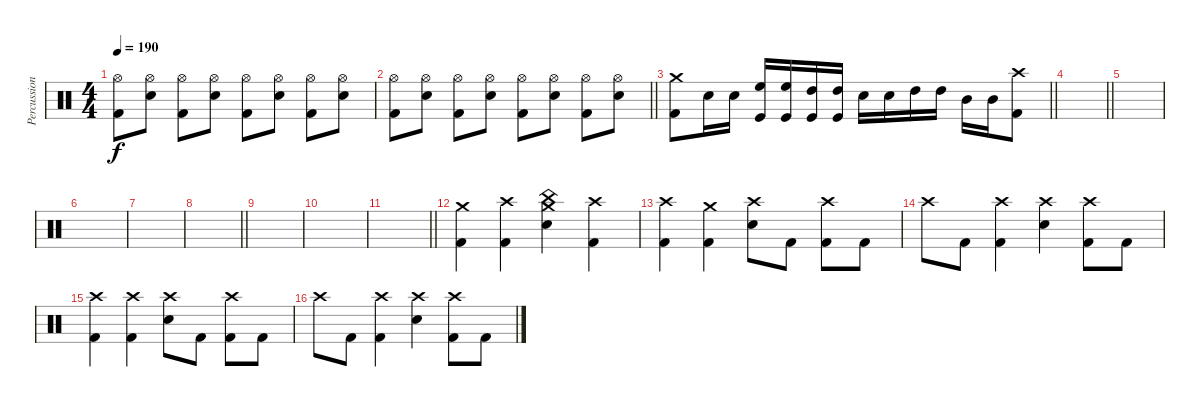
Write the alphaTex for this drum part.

\track ("Percussions" "Percussion") {instrument percussion}
\staff {score}
\articulation defaults
\ts (4 4)
\tempo 190
\clef neutral
\ks c
("Hi-Hat (open)" "Kick (hit) 2").8{dy f} ("Hi-Hat (open)" "Electric Snare (hit)").8 ("Hi-Hat (open)" "Kick (hit) 2").8 ("Hi-Hat (open)" "Electric Snare (hit)").8 ("Hi-Hat (open)" "Kick (hit) 2").8 ("Hi-Hat (open)" "Electric Snare (hit)").8 ("Hi-Hat (open)" "Kick (hit) 2").8 ("Hi-Hat (open)" "Electric Snare (hit)").8 |
\barLineRight lightlight
("Hi-Hat (open)" "Kick (hit) 2").8 ("Hi-Hat (open)" "Electric Snare (hit)").8 ("Hi-Hat (open)" "Kick (hit) 2").8 ("Hi-Hat (open)" "Electric Snare (hit)").8 ("Hi-Hat (open)" "Kick (hit) 2").8 ("Hi-Hat (open)" "Electric Snare (hit)").8 ("Hi-Hat (open)" "Kick (hit) 2").8 ("Hi-Hat (open)" "Electric Snare (hit)").8 |
\barLineRight lightlight
("Crash medium (hit)" "Kick (hit) 2").8 "Electric Snare (hit)".16 "Electric Snare (hit)".16 ("High Floor Tom (hit)" "Kick (hit)").16 ("High Floor Tom (hit)" "Kick (hit)").16 ("High Tom (hit)" "Kick (hit)").16 ("High Tom (hit)" "Kick (hit)").16 "Electric Snare (hit)".16 "Electric Snare (hit)".16 "High Tom (hit)".16 "High Tom (hit)".16 "Mid Tom (hit)".16 "Mid Tom (hit)".16 ("Crash high (hit)" "Kick (hit) 2").8 |
\barLineRight lightlight
|
|
|
|
\barLineRight lightlight
|
|
|
\barLineRight lightlight
|
\section ("" "")
("Crash medium (hit)" "Kick (hit) 2").4 ("Crash high (hit)" "Kick (hit) 2").4 ("Crash medium (hit)" "China (hit)" "Electric Snare (hit)").4 ("Crash high (hit)" "Kick (hit) 2").4 |
("Crash high (hit)" "Kick (hit) 2").4 ("Crash medium (hit)" "Kick (hit) 2").4 ("Crash high (hit)" "Electric Snare (hit)").8 "Kick (hit) 2".8 ("Crash high (hit)" "Kick (hit) 2").8 "Kick (hit) 2".8 |
"Crash high (hit)".8 "Kick (hit) 2".8 ("Crash high (hit)" "Kick (hit) 2").4 ("Crash high (hit)" "Electric Snare (hit)").4 ("Crash high (hit)" "Kick (hit) 2").8 "Kick (hit) 2".8 |
("Crash high (hit)" "Kick (hit) 2").4 ("Crash high (hit)" "Kick (hit) 2").4 ("Crash high (hit)" "Electric Snare (hit)").8 "Kick (hit) 2".8 ("Crash high (hit)" "Kick (hit) 2").8 "Kick (hit) 2".8 |
"Crash high (hit)".8 "Kick (hit) 2".8 ("Crash high (hit)" "Kick (hit) 2").4 ("Crash high (hit)" "Electric Snare (hit)").4 ("Crash high (hit)" "Kick (hit) 2").8 "Kick (hit) 2".8
